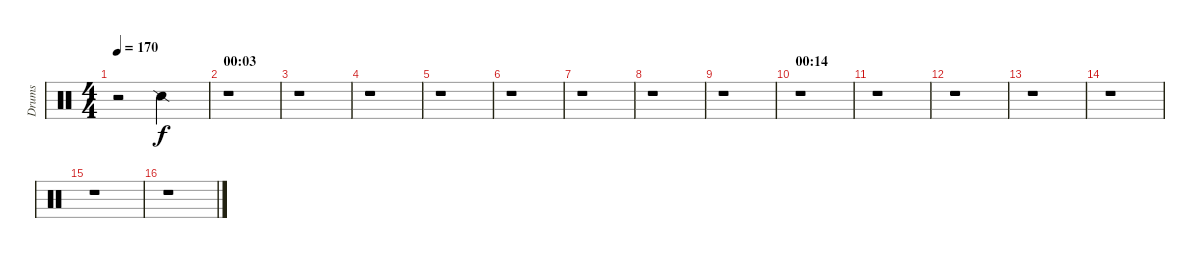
\track ("Drums" "Drums") {instrument percussion}
\staff {score}
\articulation defaults
\ts (4 4)
\tempo 170
\clef neutral
\ks c
r.2{dy f} "Snare (side stick) 2".2 |
\section ("" "00:03")
r.1 |
r.1 |
r.1 |
r.1 |
r.1 |
r.1 |
r.1 |
r.1 |
\section ("" "00:14")
r.1 |
r.1 |
r.1 |
r.1 |
r.1 |
r.1 |
r.1
